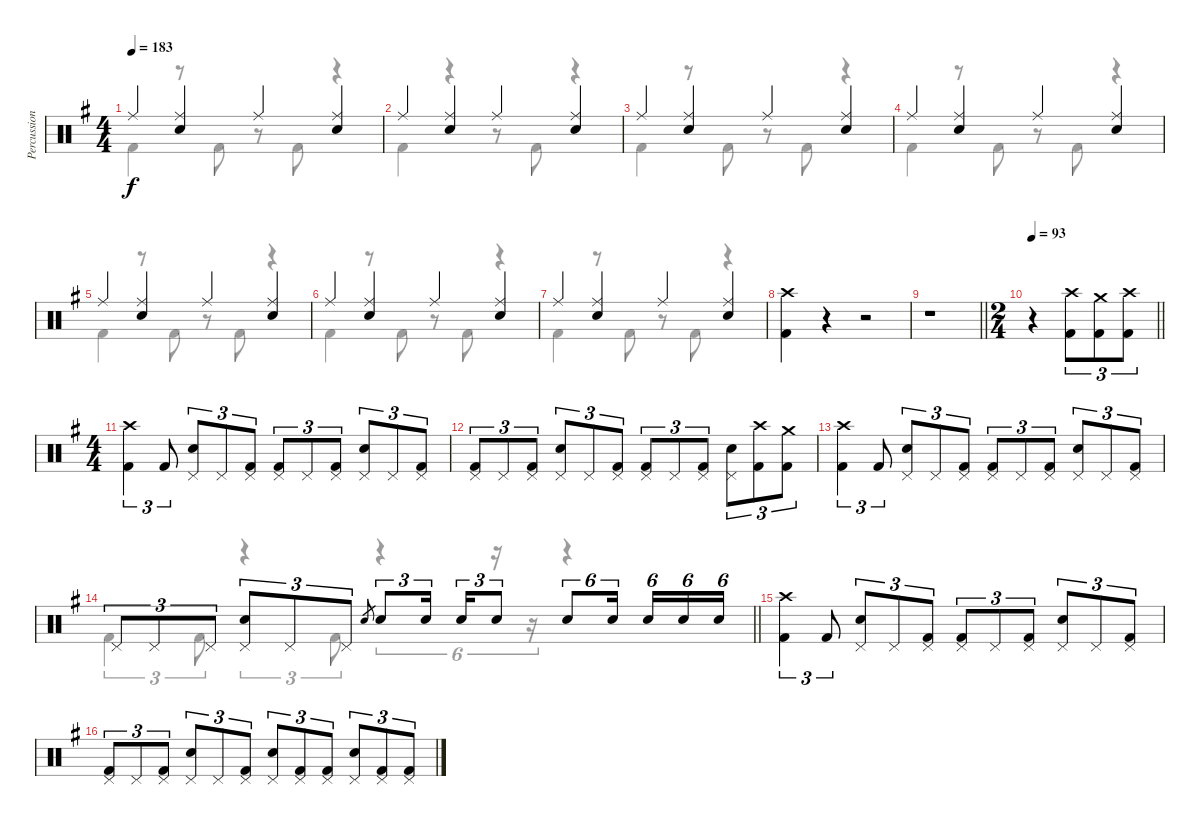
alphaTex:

\track ("Percussion" "Percussion") {instrument percussion}
\staff {score}
\articulation defaults
\voice
\ts (4 4)
\tempo 183
\clef neutral
\ks g "Ride (middle)".4{dy f}
("Ride (middle)" "Electric Snare (hit)").4 "Ride (middle)".4 ("Ride (middle)" "Electric Snare (hit)").4 |
"Ride (middle)".4 ("Ride (middle)" "Electric Snare (hit)").4 "Ride (middle)".4 ("Ride (middle)" "Electric Snare (hit)").4 |
"Ride (middle)".4 ("Ride (middle)" "Electric Snare (hit)").4 "Ride (middle)".4 ("Ride (middle)" "Electric Snare (hit)").4 |
"Ride (middle)".4 ("Ride (middle)" "Electric Snare (hit)").4 "Ride (middle)".4 ("Ride (middle)" "Electric Snare (hit)").4 |
"Ride (middle)".4 ("Ride (middle)" "Electric Snare (hit)").4 "Ride (middle)".4 ("Ride (middle)" "Electric Snare (hit)").4 |
"Ride (middle)".4 ("Ride (middle)" "Electric Snare (hit)").4 "Ride (middle)".4 ("Ride (middle)" "Electric Snare (hit)").4 |
"Ride (middle)".4 ("Ride (middle)" "Electric Snare (hit)").4 "Ride (middle)".4 ("Ride (middle)" "Electric Snare (hit)").4 |
("Crash high (hit)" "Kick (hit) 2").4 r.4 r.2 |
\barLineRight lightlight
r.1 |
\ts (2 4)
\tempo 106
\tempo 93
\barLineRight lightlight
r.4 ("Crash high (hit)" "Kick (hit) 2").8{tu (3 2)} ("Crash medium (hit)" "Kick (hit) 2").8{tu (3 2)} ("Crash high (hit)" "Kick (hit) 2").8{tu (3 2)} |
\ts (4 4)
("Crash high (hit)" "Kick (hit) 2").4{tu (3 2)} "Kick (hit) 2".8{tu (3 2)} ("Pedal Hi-Hat (hit)" "Electric Snare (hit)").8{tu (3 2)} "Pedal Hi-Hat (hit)".8{tu (3 2)} ("Pedal Hi-Hat (hit)" "Kick (hit) 2").8{tu (3 2)} ("Pedal Hi-Hat (hit)" "Kick (hit) 2").8{tu (3 2)} "Pedal Hi-Hat (hit)".8{tu (3 2)} ("Pedal Hi-Hat (hit)" "Kick (hit) 2").8{tu (3 2)} ("Pedal Hi-Hat (hit)" "Electric Snare (hit)").8{tu (3 2)} "Pedal Hi-Hat (hit)".8{tu (3 2)} ("Pedal Hi-Hat (hit)" "Kick (hit) 2").8{tu (3 2)} |
("Pedal Hi-Hat (hit)" "Kick (hit) 2").8{tu (3 2)} "Pedal Hi-Hat (hit)".8{tu (3 2)} ("Pedal Hi-Hat (hit)" "Kick (hit) 2").8{tu (3 2)} ("Pedal Hi-Hat (hit)" "Electric Snare (hit)").8{tu (3 2)} "Pedal Hi-Hat (hit)".8{tu (3 2)} ("Pedal Hi-Hat (hit)" "Kick (hit) 2").8{tu (3 2)} ("Pedal Hi-Hat (hit)" "Kick (hit) 2").8{tu (3 2)} "Pedal Hi-Hat (hit)".8{tu (3 2)} ("Pedal Hi-Hat (hit)" "Kick (hit) 2").8{tu (3 2)} ("Pedal Hi-Hat (hit)" "Electric Snare (hit)").8{tu (3 2)} ("Crash high (hit)" "Kick (hit) 2").8{tu (3 2)} ("Crash medium (hit)" "Kick (hit) 2").8{tu (3 2)} |
("Crash high (hit)" "Kick (hit) 2").4{tu (3 2)} "Kick (hit) 2".8{tu (3 2)} ("Pedal Hi-Hat (hit)" "Electric Snare (hit)").8{tu (3 2)} "Pedal Hi-Hat (hit)".8{tu (3 2)} ("Pedal Hi-Hat (hit)" "Kick (hit) 2").8{tu (3 2)} ("Pedal Hi-Hat (hit)" "Kick (hit) 2").8{tu (3 2)} "Pedal Hi-Hat (hit)".8{tu (3 2)} ("Pedal Hi-Hat (hit)" "Kick (hit) 2").8{tu (3 2)} ("Pedal Hi-Hat (hit)" "Electric Snare (hit)").8{tu (3 2)} "Pedal Hi-Hat (hit)".8{tu (3 2)} ("Pedal Hi-Hat (hit)" "Kick (hit) 2").8{tu (3 2)} |
\barLineRight lightlight "Pedal Hi-Hat (hit)".8{tu (3 2)} "Pedal Hi-Hat (hit)".8{tu (3 2)} "Pedal Hi-Hat (hit)".8{tu (3 2)}
("Pedal Hi-Hat (hit)" "Electric Snare (hit)").8{tu (3 2)} "Pedal Hi-Hat (hit)".8{tu (3 2)} "Pedal Hi-Hat (hit)".8{tu (3 2)} "Electric Snare (hit)".8{gr} "Electric Snare (hit)".8{tu (3 2) beam Up} "Electric Snare (hit)".16{tu (3 2) beam Up beam splitsecondary} "Electric Snare (hit)".16{tu (3 2) beam Up beam merge} "Electric Snare (hit)".8{tu (3 2) beam Up} "Electric Snare (hit)".8{tu (6 4) beam Up beam merge} "Electric Snare (hit)".16{tu (6 4) beam splitsecondary} "Electric Snare (hit)".16{tu (6 4)} "Electric Snare (hit)".16{tu (6 4) beam merge} "Electric Snare (hit)".16{tu (6 4)} |
("Crash high (hit)" "Kick (hit) 2").4{tu (3 2)} "Kick (hit) 2".8{tu (3 2)} ("Pedal Hi-Hat (hit)" "Electric Snare (hit)").8{tu (3 2)} "Pedal Hi-Hat (hit)".8{tu (3 2)} ("Pedal Hi-Hat (hit)" "Kick (hit) 2").8{tu (3 2)} ("Pedal Hi-Hat (hit)" "Kick (hit) 2").8{tu (3 2)} "Pedal Hi-Hat (hit)".8{tu (3 2)} ("Pedal Hi-Hat (hit)" "Kick (hit) 2").8{tu (3 2)} ("Pedal Hi-Hat (hit)" "Electric Snare (hit)").8{tu (3 2)} "Pedal Hi-Hat (hit)".8{tu (3 2)} ("Pedal Hi-Hat (hit)" "Kick (hit) 2").8{tu (3 2)} |
("Pedal Hi-Hat (hit)" "Kick (hit) 2").8{tu (3 2)} "Pedal Hi-Hat (hit)".8{tu (3 2)} ("Pedal Hi-Hat (hit)" "Kick (hit) 2").8{tu (3 2)} ("Pedal Hi-Hat (hit)" "Electric Snare (hit)").8{tu (3 2)} "Pedal Hi-Hat (hit)".8{tu (3 2)} ("Pedal Hi-Hat (hit)" "Kick (hit) 2").8{tu (3 2)} ("Pedal Hi-Hat (hit)" "Electric Snare (hit)").8{tu (3 2)} ("Pedal Hi-Hat (hit)" "Kick (hit) 2").8{tu (3 2)} ("Pedal Hi-Hat (hit)" "Kick (hit) 2").8{tu (3 2)} ("Pedal Hi-Hat (hit)" "Electric Snare (hit)").8{tu (3 2)} ("Pedal Hi-Hat (hit)" "Kick (hit) 2").8{tu (3 2)} ("Pedal Hi-Hat (hit)" "Kick (hit) 2").8{tu (3 2)}
\voice
\clef neutral
\ottava regular
\simile none
\ks g "Kick (hit) 2".4{dy f}
r.8 "Kick (hit) 2".8 r.8 "Kick (hit) 2".8 r.4 |
"Kick (hit) 2".4 r.4 r.8 "Kick (hit) 2".8 r.4 |
"Kick (hit) 2".4 r.8 "Kick (hit) 2".8 r.8 "Kick (hit) 2".8 r.4 |
"Kick (hit) 2".4 r.8 "Kick (hit) 2".8 r.8 "Kick (hit) 2".8 r.4 |
"Kick (hit) 2".4 r.8 "Kick (hit) 2".8 r.8 "Kick (hit) 2".8 r.4 |
"Kick (hit) 2".4 r.8 "Kick (hit) 2".8 r.8 "Kick (hit) 2".8 r.4 |
"Kick (hit) 2".4 r.8 "Kick (hit) 2".8 r.8 "Kick (hit) 2".8 r.4 |
|
\barLineRight lightlight
|
\barLineRight lightlight
|
|
|
|
\barLineRight lightlight "Kick (hit) 2".4{tu (3 2)} "Kick (hit) 2".8{tu (3 2)}
r.4{tu (3 2)} "Kick (hit) 2".8{tu (3 2)} r.4{tu (6 4)} r.16{tu (6 4)} r.16{tu (6 4)} r.4 |
|
